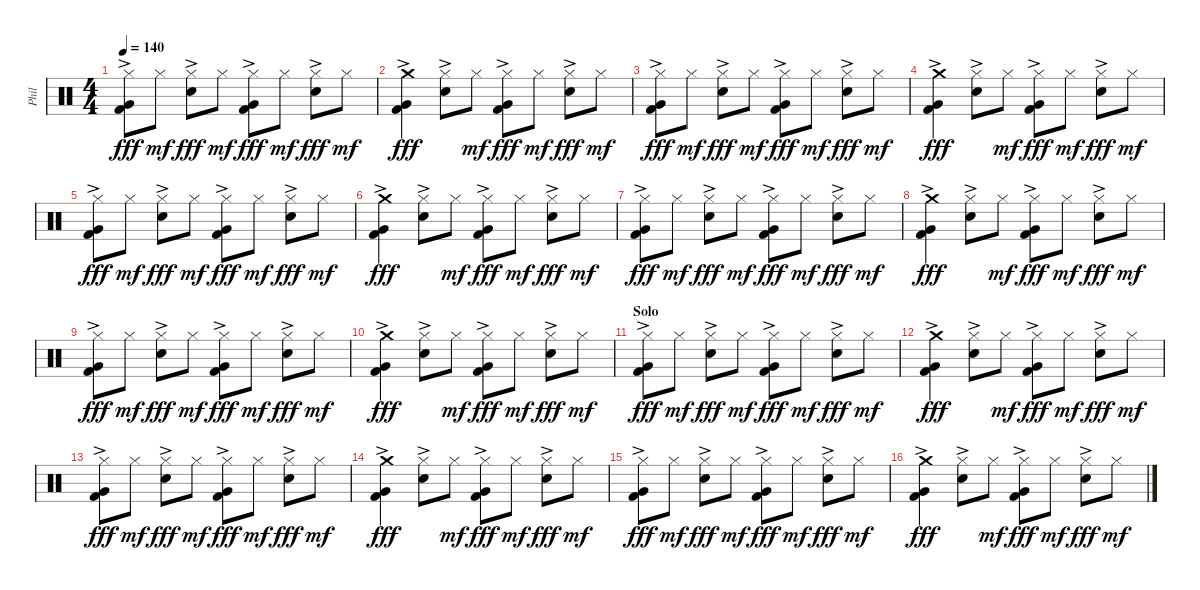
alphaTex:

\track ("Phil" "Phil") {instrument percussion}
\staff {score}
\articulation defaults
\ts (4 4)
\tempo 140
\clef neutral
\ks c
("Hi-Hat (closed)"{ac} "Very Low Tom (hit)"{ac} "Kick (hit) 2"{ac}).8{dy fff} "Hi-Hat (closed)".8{dy mf} ("Hi-Hat (closed)"{ac} "Snare (hit) 2").8{dy fff} "Hi-Hat (closed)".8{dy mf} ("Hi-Hat (closed)"{ac} "Very Low Tom (hit)"{ac} "Kick (hit) 2"{ac}).8{dy fff} "Hi-Hat (closed)".8{dy mf} ("Hi-Hat (closed)"{ac} "Snare (hit) 2").8{dy fff} "Hi-Hat (closed)".8{dy mf} |
("Crash medium (hit)"{ac} "Very Low Tom (hit)"{ac} "Kick (hit) 2"{ac}).4{dy fff} ("Hi-Hat (closed)"{ac} "Snare (hit) 2").8 "Hi-Hat (closed)".8{dy mf} ("Hi-Hat (closed)"{ac} "Very Low Tom (hit)"{ac} "Kick (hit) 2"{ac}).8{dy fff} "Hi-Hat (closed)".8{dy mf} ("Hi-Hat (closed)"{ac} "Snare (hit) 2").8{dy fff} "Hi-Hat (closed)".8{dy mf} |
("Hi-Hat (closed)"{ac} "Very Low Tom (hit)"{ac} "Kick (hit) 2"{ac}).8{dy fff} "Hi-Hat (closed)".8{dy mf} ("Hi-Hat (closed)"{ac} "Snare (hit) 2").8{dy fff} "Hi-Hat (closed)".8{dy mf} ("Hi-Hat (closed)"{ac} "Very Low Tom (hit)"{ac} "Kick (hit) 2"{ac}).8{dy fff} "Hi-Hat (closed)".8{dy mf} ("Hi-Hat (closed)"{ac} "Snare (hit) 2").8{dy fff} "Hi-Hat (closed)".8{dy mf} |
("Crash medium (hit)"{ac} "Very Low Tom (hit)"{ac} "Kick (hit) 2"{ac}).4{dy fff} ("Hi-Hat (closed)"{ac} "Snare (hit) 2").8 "Hi-Hat (closed)".8{dy mf} ("Hi-Hat (closed)"{ac} "Very Low Tom (hit)"{ac} "Kick (hit) 2"{ac}).8{dy fff} "Hi-Hat (closed)".8{dy mf} ("Hi-Hat (closed)"{ac} "Snare (hit) 2").8{dy fff} "Hi-Hat (closed)".8{dy mf} |
("Hi-Hat (closed)"{ac} "Very Low Tom (hit)"{ac} "Kick (hit) 2"{ac}).8{dy fff} "Hi-Hat (closed)".8{dy mf} ("Hi-Hat (closed)"{ac} "Snare (hit) 2").8{dy fff} "Hi-Hat (closed)".8{dy mf} ("Hi-Hat (closed)"{ac} "Very Low Tom (hit)"{ac} "Kick (hit) 2"{ac}).8{dy fff} "Hi-Hat (closed)".8{dy mf} ("Hi-Hat (closed)"{ac} "Snare (hit) 2").8{dy fff} "Hi-Hat (closed)".8{dy mf} |
("Crash medium (hit)"{ac} "Very Low Tom (hit)"{ac} "Kick (hit) 2"{ac}).4{dy fff} ("Hi-Hat (closed)"{ac} "Snare (hit) 2").8 "Hi-Hat (closed)".8{dy mf} ("Hi-Hat (closed)"{ac} "Very Low Tom (hit)"{ac} "Kick (hit) 2"{ac}).8{dy fff} "Hi-Hat (closed)".8{dy mf} ("Hi-Hat (closed)"{ac} "Snare (hit) 2").8{dy fff} "Hi-Hat (closed)".8{dy mf} |
("Hi-Hat (closed)"{ac} "Very Low Tom (hit)"{ac} "Kick (hit) 2"{ac}).8{dy fff} "Hi-Hat (closed)".8{dy mf} ("Hi-Hat (closed)"{ac} "Snare (hit) 2").8{dy fff} "Hi-Hat (closed)".8{dy mf} ("Hi-Hat (closed)"{ac} "Very Low Tom (hit)"{ac} "Kick (hit) 2"{ac}).8{dy fff} "Hi-Hat (closed)".8{dy mf} ("Hi-Hat (closed)"{ac} "Snare (hit) 2").8{dy fff} "Hi-Hat (closed)".8{dy mf} |
("Crash medium (hit)"{ac} "Very Low Tom (hit)"{ac} "Kick (hit) 2"{ac}).4{dy fff} ("Hi-Hat (closed)"{ac} "Snare (hit) 2").8 "Hi-Hat (closed)".8{dy mf} ("Hi-Hat (closed)"{ac} "Very Low Tom (hit)"{ac} "Kick (hit) 2"{ac}).8{dy fff} "Hi-Hat (closed)".8{dy mf} ("Hi-Hat (closed)"{ac} "Snare (hit) 2").8{dy fff} "Hi-Hat (closed)".8{dy mf} |
("Hi-Hat (closed)"{ac} "Very Low Tom (hit)"{ac} "Kick (hit) 2"{ac}).8{dy fff} "Hi-Hat (closed)".8{dy mf} ("Hi-Hat (closed)"{ac} "Snare (hit) 2").8{dy fff} "Hi-Hat (closed)".8{dy mf} ("Hi-Hat (closed)"{ac} "Very Low Tom (hit)"{ac} "Kick (hit) 2"{ac}).8{dy fff} "Hi-Hat (closed)".8{dy mf} ("Hi-Hat (closed)"{ac} "Snare (hit) 2").8{dy fff} "Hi-Hat (closed)".8{dy mf} |
("Crash medium (hit)"{ac} "Very Low Tom (hit)"{ac} "Kick (hit) 2"{ac}).4{dy fff} ("Hi-Hat (closed)"{ac} "Snare (hit) 2").8 "Hi-Hat (closed)".8{dy mf} ("Hi-Hat (closed)"{ac} "Very Low Tom (hit)"{ac} "Kick (hit) 2"{ac}).8{dy fff} "Hi-Hat (closed)".8{dy mf} ("Hi-Hat (closed)"{ac} "Snare (hit) 2").8{dy fff} "Hi-Hat (closed)".8{dy mf} |
\section ("" "Solo")
("Hi-Hat (closed)"{ac} "Very Low Tom (hit)"{ac} "Kick (hit) 2"{ac}).8{dy fff} "Hi-Hat (closed)".8{dy mf} ("Hi-Hat (closed)"{ac} "Snare (hit) 2").8{dy fff} "Hi-Hat (closed)".8{dy mf} ("Hi-Hat (closed)"{ac} "Very Low Tom (hit)"{ac} "Kick (hit) 2"{ac}).8{dy fff} "Hi-Hat (closed)".8{dy mf} ("Hi-Hat (closed)"{ac} "Snare (hit) 2").8{dy fff} "Hi-Hat (closed)".8{dy mf} |
("Crash medium (hit)"{ac} "Very Low Tom (hit)"{ac} "Kick (hit) 2"{ac}).4{dy fff} ("Hi-Hat (closed)"{ac} "Snare (hit) 2").8 "Hi-Hat (closed)".8{dy mf} ("Hi-Hat (closed)"{ac} "Very Low Tom (hit)"{ac} "Kick (hit) 2"{ac}).8{dy fff} "Hi-Hat (closed)".8{dy mf} ("Hi-Hat (closed)"{ac} "Snare (hit) 2").8{dy fff} "Hi-Hat (closed)".8{dy mf} |
("Hi-Hat (closed)"{ac} "Very Low Tom (hit)"{ac} "Kick (hit) 2"{ac}).8{dy fff} "Hi-Hat (closed)".8{dy mf} ("Hi-Hat (closed)"{ac} "Snare (hit) 2").8{dy fff} "Hi-Hat (closed)".8{dy mf} ("Hi-Hat (closed)"{ac} "Very Low Tom (hit)"{ac} "Kick (hit) 2"{ac}).8{dy fff} "Hi-Hat (closed)".8{dy mf} ("Hi-Hat (closed)"{ac} "Snare (hit) 2").8{dy fff} "Hi-Hat (closed)".8{dy mf} |
("Crash medium (hit)"{ac} "Very Low Tom (hit)"{ac} "Kick (hit) 2"{ac}).4{dy fff} ("Hi-Hat (closed)"{ac} "Snare (hit) 2").8 "Hi-Hat (closed)".8{dy mf} ("Hi-Hat (closed)"{ac} "Very Low Tom (hit)"{ac} "Kick (hit) 2"{ac}).8{dy fff} "Hi-Hat (closed)".8{dy mf} ("Hi-Hat (closed)"{ac} "Snare (hit) 2").8{dy fff} "Hi-Hat (closed)".8{dy mf} |
("Hi-Hat (closed)"{ac} "Very Low Tom (hit)"{ac} "Kick (hit) 2"{ac}).8{dy fff} "Hi-Hat (closed)".8{dy mf} ("Hi-Hat (closed)"{ac} "Snare (hit) 2").8{dy fff} "Hi-Hat (closed)".8{dy mf} ("Hi-Hat (closed)"{ac} "Very Low Tom (hit)"{ac} "Kick (hit) 2"{ac}).8{dy fff} "Hi-Hat (closed)".8{dy mf} ("Hi-Hat (closed)"{ac} "Snare (hit) 2").8{dy fff} "Hi-Hat (closed)".8{dy mf} |
("Crash medium (hit)"{ac} "Very Low Tom (hit)"{ac} "Kick (hit) 2"{ac}).4{dy fff} ("Hi-Hat (closed)"{ac} "Snare (hit) 2").8 "Hi-Hat (closed)".8{dy mf} ("Hi-Hat (closed)"{ac} "Very Low Tom (hit)"{ac} "Kick (hit) 2"{ac}).8{dy fff} "Hi-Hat (closed)".8{dy mf} ("Hi-Hat (closed)"{ac} "Snare (hit) 2").8{dy fff} "Hi-Hat (closed)".8{dy mf}
